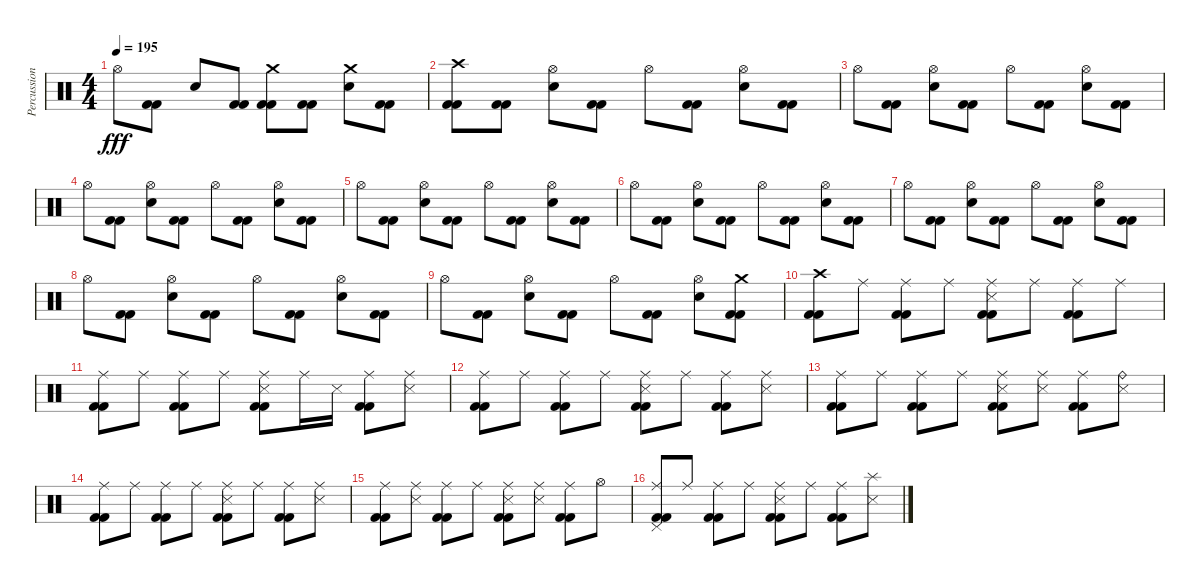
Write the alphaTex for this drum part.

\track ("Percussions" "Percussion") {instrument percussion}
\staff {score}
\articulation defaults
\ts (4 4)
\tempo 195
\clef neutral
\ks c "Hi-Hat (open)".8{dy fff}
("Kick (hit) 2" "Kick (hit) 2").8 "Electric Snare (hit)".8 ("Kick (hit) 2" "Kick (hit) 2").8 ("Crash medium (hit)" "Kick (hit) 2" "Kick (hit) 2").8 ("Kick (hit) 2" "Kick (hit) 2").8 ("Crash medium (hit)" "Electric Snare (hit)").8 ("Kick (hit) 2" "Kick (hit) 2").8 |
("Crash high (hit)" "Kick (hit) 2" "Kick (hit) 2").8 ("Kick (hit) 2" "Kick (hit) 2").8 ("Hi-Hat (open)" "Electric Snare (hit)").8 ("Kick (hit) 2" "Kick (hit) 2").8 "Hi-Hat (open)".8 ("Kick (hit) 2" "Kick (hit) 2").8 ("Hi-Hat (open)" "Electric Snare (hit)").8 ("Kick (hit) 2" "Kick (hit) 2").8 |
"Hi-Hat (open)".8 ("Kick (hit) 2" "Kick (hit) 2").8 ("Hi-Hat (open)" "Electric Snare (hit)").8 ("Kick (hit) 2" "Kick (hit) 2").8 "Hi-Hat (open)".8 ("Kick (hit) 2" "Kick (hit) 2").8 ("Hi-Hat (open)" "Electric Snare (hit)").8 ("Kick (hit) 2" "Kick (hit) 2").8 |
"Hi-Hat (open)".8 ("Kick (hit) 2" "Kick (hit) 2").8 ("Hi-Hat (open)" "Electric Snare (hit)").8 ("Kick (hit) 2" "Kick (hit) 2").8 "Hi-Hat (open)".8 ("Kick (hit) 2" "Kick (hit) 2").8 ("Hi-Hat (open)" "Electric Snare (hit)").8 ("Kick (hit) 2" "Kick (hit) 2").8 |
"Hi-Hat (open)".8 ("Kick (hit) 2" "Kick (hit) 2").8 ("Hi-Hat (open)" "Electric Snare (hit)").8 ("Kick (hit) 2" "Kick (hit) 2").8 "Hi-Hat (open)".8 ("Kick (hit) 2" "Kick (hit) 2").8 ("Hi-Hat (open)" "Electric Snare (hit)").8 ("Kick (hit) 2" "Kick (hit) 2").8 |
"Hi-Hat (open)".8 ("Kick (hit) 2" "Kick (hit) 2").8 ("Hi-Hat (open)" "Electric Snare (hit)").8 ("Kick (hit) 2" "Kick (hit) 2").8 "Hi-Hat (open)".8 ("Kick (hit) 2" "Kick (hit) 2").8 ("Hi-Hat (open)" "Electric Snare (hit)").8 ("Kick (hit) 2" "Kick (hit) 2").8 |
"Hi-Hat (open)".8 ("Kick (hit) 2" "Kick (hit) 2").8 ("Hi-Hat (open)" "Electric Snare (hit)").8 ("Kick (hit) 2" "Kick (hit) 2").8 "Hi-Hat (open)".8 ("Kick (hit) 2" "Kick (hit) 2").8 ("Hi-Hat (open)" "Electric Snare (hit)").8 ("Kick (hit) 2" "Kick (hit) 2").8 |
"Hi-Hat (open)".8 ("Kick (hit) 2" "Kick (hit) 2").8 ("Hi-Hat (open)" "Electric Snare (hit)").8 ("Kick (hit) 2" "Kick (hit) 2").8 "Hi-Hat (open)".8 ("Kick (hit) 2" "Kick (hit) 2").8 ("Hi-Hat (open)" "Electric Snare (hit)").8 ("Kick (hit) 2" "Kick (hit) 2").8 |
"Hi-Hat (open)".8 ("Kick (hit) 2" "Kick (hit) 2").8 ("Hi-Hat (open)" "Electric Snare (hit)").8 ("Kick (hit) 2" "Kick (hit) 2").8 "Hi-Hat (open)".8 ("Kick (hit) 2" "Kick (hit) 2").8 ("Hi-Hat (open)" "Electric Snare (hit)").8 ("Crash medium (hit)" "Kick (hit) 2" "Kick (hit) 2").8 |
("Crash high (hit)" "Kick (hit) 2" "Kick (hit) 2").8 "Ride (middle)".8 ("Ride (middle)" "Kick (hit) 2" "Kick (hit) 2").8 "Ride (middle)".8 ("Ride (middle)" "Snare (side stick) 3" "Kick (hit) 2" "Kick (hit) 2").8 "Ride (middle)".8 ("Ride (middle)" "Kick (hit) 2" "Kick (hit) 2").8 "Ride (middle)".8 |
("Ride (middle)" "Kick (hit) 2" "Kick (hit) 2").8 "Ride (middle)".8 ("Ride (middle)" "Kick (hit) 2" "Kick (hit) 2").8 "Ride (middle)".8 ("Ride (middle)" "Snare (side stick) 3" "Kick (hit) 2" "Kick (hit) 2").8 "Ride (middle)".16 "Snare (side stick) 3".16 ("Ride (middle)" "Kick (hit) 2" "Kick (hit) 2").8 ("Ride (middle)" "Snare (side stick) 3").8 |
("Ride (middle)" "Kick (hit) 2" "Kick (hit) 2").8 "Ride (middle)".8 ("Ride (middle)" "Kick (hit) 2" "Kick (hit) 2").8 "Ride (middle)".8 ("Ride (middle)" "Snare (side stick) 3" "Kick (hit) 2" "Kick (hit) 2").8 "Ride (middle)".8 ("Ride (middle)" "Kick (hit) 2" "Kick (hit) 2").8 ("Ride (middle)" "Snare (side stick) 3").8 |
("Ride (middle)" "Kick (hit) 2" "Kick (hit) 2").8 "Ride (middle)".8 ("Ride (middle)" "Kick (hit) 2" "Kick (hit) 2").8 "Ride (middle)".8 ("Ride (middle)" "Snare (side stick) 3" "Kick (hit) 2" "Kick (hit) 2").8 ("Ride (middle)" "Snare (side stick) 3").8 ("Ride (middle)" "Kick (hit) 2" "Kick (hit) 2").8 ("Ride (bell)" "Snare (side stick) 3").8 |
("Ride (middle)" "Kick (hit) 2" "Kick (hit) 2").8 "Ride (middle)".8 ("Ride (middle)" "Kick (hit) 2" "Kick (hit) 2").8 "Ride (middle)".8 ("Ride (middle)" "Snare (side stick) 3" "Kick (hit) 2" "Kick (hit) 2").8 "Ride (middle)".8 ("Ride (middle)" "Kick (hit) 2" "Kick (hit) 2").8 ("Ride (middle)" "Snare (side stick) 3").8 |
("Ride (middle)" "Kick (hit) 2" "Kick (hit) 2").8 ("Ride (middle)" "Snare (side stick) 3").8 ("Ride (middle)" "Kick (hit) 2" "Kick (hit) 2").8 "Ride (middle)".8 ("Ride (middle)" "Snare (side stick) 3" "Kick (hit) 2" "Kick (hit) 2").8 ("Ride (middle)" "Snare (side stick) 3").8 ("Ride (middle)" "Kick (hit) 2" "Kick (hit) 2").8 "Hi-Hat (open)".8 |
("Ride (middle)" "Pedal Hi-Hat (hit)" "Kick (hit) 2" "Kick (hit) 2").8 "Ride (middle)".8 ("Ride (middle)" "Kick (hit) 2" "Kick (hit) 2").8 "Ride (middle)".8 ("Ride (middle)" "Snare (side stick) 3" "Kick (hit) 2" "Kick (hit) 2").8 "Ride (middle)".8 ("Ride (middle)" "Kick (hit) 2" "Kick (hit) 2").8 ("Splash (hit)" "Snare (side stick) 3").8
